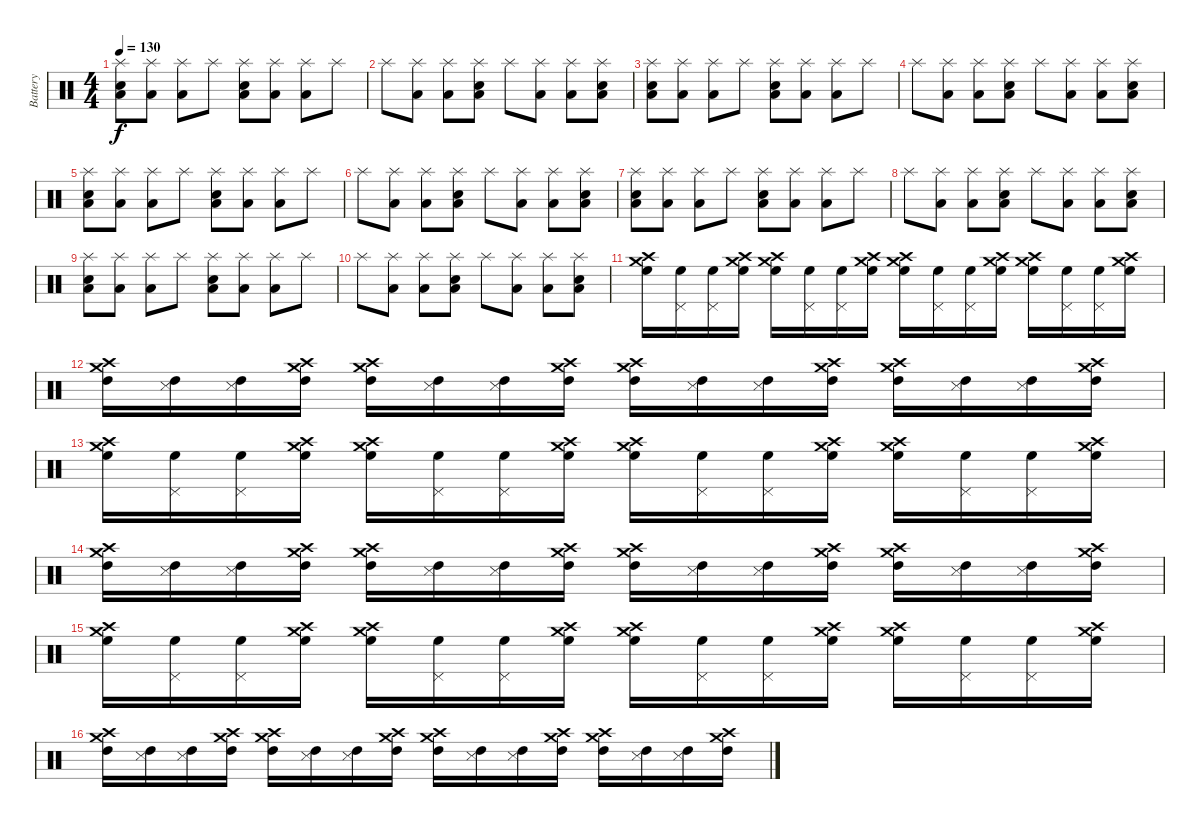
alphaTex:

\track ("Battery" "Battery") {instrument percussion}
\staff {score}
\articulation defaults
\ts (4 4)
\tempo 130
\clef neutral
\ks c
("Splash (hit)" "Low Floor Tom (hit)" "Electric Snare (hit)").8{dy f} ("Splash (hit)" "Low Floor Tom (hit)").8 ("Splash (hit)" "Low Floor Tom (hit)").8 "Splash (hit)".8 ("Splash (hit)" "Low Floor Tom (hit)" "Electric Snare (hit)").8 ("Splash (hit)" "Low Floor Tom (hit)").8 ("Splash (hit)" "Low Floor Tom (hit)").8 "Splash (hit)".8 |
"Splash (hit)".8 ("Splash (hit)" "Low Floor Tom (hit)").8 ("Splash (hit)" "Low Floor Tom (hit)").8 ("Splash (hit)" "Low Floor Tom (hit)" "Electric Snare (hit)").8 "Splash (hit)".8 ("Splash (hit)" "Low Floor Tom (hit)").8 ("Splash (hit)" "Low Floor Tom (hit)").8 ("Splash (hit)" "Low Floor Tom (hit)" "Electric Snare (hit)").8 |
("Splash (hit)" "Low Floor Tom (hit)" "Electric Snare (hit)").8 ("Splash (hit)" "Low Floor Tom (hit)").8 ("Splash (hit)" "Low Floor Tom (hit)").8 "Splash (hit)".8 ("Splash (hit)" "Low Floor Tom (hit)" "Electric Snare (hit)").8 ("Splash (hit)" "Low Floor Tom (hit)").8 ("Splash (hit)" "Low Floor Tom (hit)").8 "Splash (hit)".8 |
"Splash (hit)".8 ("Splash (hit)" "Low Floor Tom (hit)").8 ("Splash (hit)" "Low Floor Tom (hit)").8 ("Splash (hit)" "Low Floor Tom (hit)" "Electric Snare (hit)").8 "Splash (hit)".8 ("Splash (hit)" "Low Floor Tom (hit)").8 ("Splash (hit)" "Low Floor Tom (hit)").8 ("Splash (hit)" "Low Floor Tom (hit)" "Electric Snare (hit)").8 |
("Splash (hit)" "Low Floor Tom (hit)" "Electric Snare (hit)").8 ("Splash (hit)" "Low Floor Tom (hit)").8 ("Splash (hit)" "Low Floor Tom (hit)").8 "Splash (hit)".8 ("Splash (hit)" "Low Floor Tom (hit)" "Electric Snare (hit)").8 ("Splash (hit)" "Low Floor Tom (hit)").8 ("Splash (hit)" "Low Floor Tom (hit)").8 "Splash (hit)".8 |
"Splash (hit)".8 ("Splash (hit)" "Low Floor Tom (hit)").8 ("Splash (hit)" "Low Floor Tom (hit)").8 ("Splash (hit)" "Low Floor Tom (hit)" "Electric Snare (hit)").8 "Splash (hit)".8 ("Splash (hit)" "Low Floor Tom (hit)").8 ("Splash (hit)" "Low Floor Tom (hit)").8 ("Splash (hit)" "Low Floor Tom (hit)" "Electric Snare (hit)").8 |
("Splash (hit)" "Low Floor Tom (hit)" "Electric Snare (hit)").8 ("Splash (hit)" "Low Floor Tom (hit)").8 ("Splash (hit)" "Low Floor Tom (hit)").8 "Splash (hit)".8 ("Splash (hit)" "Low Floor Tom (hit)" "Electric Snare (hit)").8 ("Splash (hit)" "Low Floor Tom (hit)").8 ("Splash (hit)" "Low Floor Tom (hit)").8 "Splash (hit)".8 |
"Splash (hit)".8 ("Splash (hit)" "Low Floor Tom (hit)").8 ("Splash (hit)" "Low Floor Tom (hit)").8 ("Splash (hit)" "Low Floor Tom (hit)" "Electric Snare (hit)").8 "Splash (hit)".8 ("Splash (hit)" "Low Floor Tom (hit)").8 ("Splash (hit)" "Low Floor Tom (hit)").8 ("Splash (hit)" "Low Floor Tom (hit)" "Electric Snare (hit)").8 |
("Splash (hit)" "Low Floor Tom (hit)" "Electric Snare (hit)").8 ("Splash (hit)" "Low Floor Tom (hit)").8 ("Splash (hit)" "Low Floor Tom (hit)").8 "Splash (hit)".8 ("Splash (hit)" "Low Floor Tom (hit)" "Electric Snare (hit)").8 ("Splash (hit)" "Low Floor Tom (hit)").8 ("Splash (hit)" "Low Floor Tom (hit)").8 "Splash (hit)".8 |
"Splash (hit)".8 ("Splash (hit)" "Low Floor Tom (hit)").8 ("Splash (hit)" "Low Floor Tom (hit)").8 ("Splash (hit)" "Low Floor Tom (hit)" "Electric Snare (hit)").8 "Splash (hit)".8 ("Splash (hit)" "Low Floor Tom (hit)").8 ("Splash (hit)" "Low Floor Tom (hit)").8 ("Splash (hit)" "Low Floor Tom (hit)" "Electric Snare (hit)").8 |
("High Floor Tom (hit)" "Crash high (hit)" "Crash medium (hit)").16 ("High Floor Tom (hit)" "Pedal Hi-Hat (hit)").16 ("High Floor Tom (hit)" "Pedal Hi-Hat (hit)").16 ("High Floor Tom (hit)" "Crash high (hit)" "Crash medium (hit)").16 ("High Floor Tom (hit)" "Crash high (hit)" "Crash medium (hit)").16 ("High Floor Tom (hit)" "Pedal Hi-Hat (hit)").16 ("High Floor Tom (hit)" "Pedal Hi-Hat (hit)").16 ("High Floor Tom (hit)" "Crash high (hit)" "Crash medium (hit)").16 ("High Floor Tom (hit)" "Crash high (hit)" "Crash medium (hit)").16 ("High Floor Tom (hit)" "Pedal Hi-Hat (hit)").16 ("High Floor Tom (hit)" "Pedal Hi-Hat (hit)").16 ("High Floor Tom (hit)" "Crash high (hit)" "Crash medium (hit)").16 ("High Floor Tom (hit)" "Crash high (hit)" "Crash medium (hit)").16 ("High Floor Tom (hit)" "Pedal Hi-Hat (hit)").16 ("High Floor Tom (hit)" "Pedal Hi-Hat (hit)").16 ("High Floor Tom (hit)" "Crash high (hit)" "Crash medium (hit)").16 |
("High Tom (hit)" "Crash high (hit)" "Crash medium (hit)").16 ("High Tom (hit)" "Snare (side stick) 3").16 ("High Tom (hit)" "Snare (side stick) 3").16 ("High Tom (hit)" "Crash high (hit)" "Crash medium (hit)").16 ("High Tom (hit)" "Crash high (hit)" "Crash medium (hit)").16 ("High Tom (hit)" "Snare (side stick) 3").16 ("High Tom (hit)" "Snare (side stick) 3").16 ("High Tom (hit)" "Crash high (hit)" "Crash medium (hit)").16 ("High Tom (hit)" "Crash high (hit)" "Crash medium (hit)").16 ("High Tom (hit)" "Snare (side stick) 3").16 ("High Tom (hit)" "Snare (side stick) 3").16 ("High Tom (hit)" "Crash high (hit)" "Crash medium (hit)").16 ("High Tom (hit)" "Crash high (hit)" "Crash medium (hit)").16 ("High Tom (hit)" "Snare (side stick) 3").16 ("High Tom (hit)" "Snare (side stick) 3").16 ("High Tom (hit)" "Crash high (hit)" "Crash medium (hit)").16 |
("High Floor Tom (hit)" "Crash high (hit)" "Crash medium (hit)").16 ("High Floor Tom (hit)" "Pedal Hi-Hat (hit)").16 ("High Floor Tom (hit)" "Pedal Hi-Hat (hit)").16 ("High Floor Tom (hit)" "Crash high (hit)" "Crash medium (hit)").16 ("High Floor Tom (hit)" "Crash high (hit)" "Crash medium (hit)").16 ("High Floor Tom (hit)" "Pedal Hi-Hat (hit)").16 ("High Floor Tom (hit)" "Pedal Hi-Hat (hit)").16 ("High Floor Tom (hit)" "Crash high (hit)" "Crash medium (hit)").16 ("High Floor Tom (hit)" "Crash high (hit)" "Crash medium (hit)").16 ("High Floor Tom (hit)" "Pedal Hi-Hat (hit)").16 ("High Floor Tom (hit)" "Pedal Hi-Hat (hit)").16 ("High Floor Tom (hit)" "Crash high (hit)" "Crash medium (hit)").16 ("High Floor Tom (hit)" "Crash high (hit)" "Crash medium (hit)").16 ("High Floor Tom (hit)" "Pedal Hi-Hat (hit)").16 ("High Floor Tom (hit)" "Pedal Hi-Hat (hit)").16 ("High Floor Tom (hit)" "Crash high (hit)" "Crash medium (hit)").16 |
("High Tom (hit)" "Crash high (hit)" "Crash medium (hit)").16 ("High Tom (hit)" "Snare (side stick) 3").16 ("High Tom (hit)" "Snare (side stick) 3").16 ("High Tom (hit)" "Crash high (hit)" "Crash medium (hit)").16 ("High Tom (hit)" "Crash high (hit)" "Crash medium (hit)").16 ("High Tom (hit)" "Snare (side stick) 3").16 ("High Tom (hit)" "Snare (side stick) 3").16 ("High Tom (hit)" "Crash high (hit)" "Crash medium (hit)").16 ("High Tom (hit)" "Crash high (hit)" "Crash medium (hit)").16 ("High Tom (hit)" "Snare (side stick) 3").16 ("High Tom (hit)" "Snare (side stick) 3").16 ("High Tom (hit)" "Crash high (hit)" "Crash medium (hit)").16 ("High Tom (hit)" "Crash high (hit)" "Crash medium (hit)").16 ("High Tom (hit)" "Snare (side stick) 3").16 ("High Tom (hit)" "Snare (side stick) 3").16 ("High Tom (hit)" "Crash high (hit)" "Crash medium (hit)").16 |
("High Floor Tom (hit)" "Crash high (hit)" "Crash medium (hit)").16 ("High Floor Tom (hit)" "Pedal Hi-Hat (hit)").16 ("High Floor Tom (hit)" "Pedal Hi-Hat (hit)").16 ("High Floor Tom (hit)" "Crash high (hit)" "Crash medium (hit)").16 ("High Floor Tom (hit)" "Crash high (hit)" "Crash medium (hit)").16 ("High Floor Tom (hit)" "Pedal Hi-Hat (hit)").16 ("High Floor Tom (hit)" "Pedal Hi-Hat (hit)").16 ("High Floor Tom (hit)" "Crash high (hit)" "Crash medium (hit)").16 ("High Floor Tom (hit)" "Crash high (hit)" "Crash medium (hit)").16 ("High Floor Tom (hit)" "Pedal Hi-Hat (hit)").16 ("High Floor Tom (hit)" "Pedal Hi-Hat (hit)").16 ("High Floor Tom (hit)" "Crash high (hit)" "Crash medium (hit)").16 ("High Floor Tom (hit)" "Crash high (hit)" "Crash medium (hit)").16 ("High Floor Tom (hit)" "Pedal Hi-Hat (hit)").16 ("High Floor Tom (hit)" "Pedal Hi-Hat (hit)").16 ("High Floor Tom (hit)" "Crash high (hit)" "Crash medium (hit)").16 |
("High Tom (hit)" "Crash high (hit)" "Crash medium (hit)").16 ("High Tom (hit)" "Snare (side stick) 3").16 ("High Tom (hit)" "Snare (side stick) 3").16 ("High Tom (hit)" "Crash high (hit)" "Crash medium (hit)").16 ("High Tom (hit)" "Crash high (hit)" "Crash medium (hit)").16 ("High Tom (hit)" "Snare (side stick) 3").16 ("High Tom (hit)" "Snare (side stick) 3").16 ("High Tom (hit)" "Crash high (hit)" "Crash medium (hit)").16 ("High Tom (hit)" "Crash high (hit)" "Crash medium (hit)").16 ("High Tom (hit)" "Snare (side stick) 3").16 ("High Tom (hit)" "Snare (side stick) 3").16 ("High Tom (hit)" "Crash high (hit)" "Crash medium (hit)").16 ("High Tom (hit)" "Crash high (hit)" "Crash medium (hit)").16 ("High Tom (hit)" "Snare (side stick) 3").16 ("High Tom (hit)" "Snare (side stick) 3").16 ("High Tom (hit)" "Crash high (hit)" "Crash medium (hit)").16
